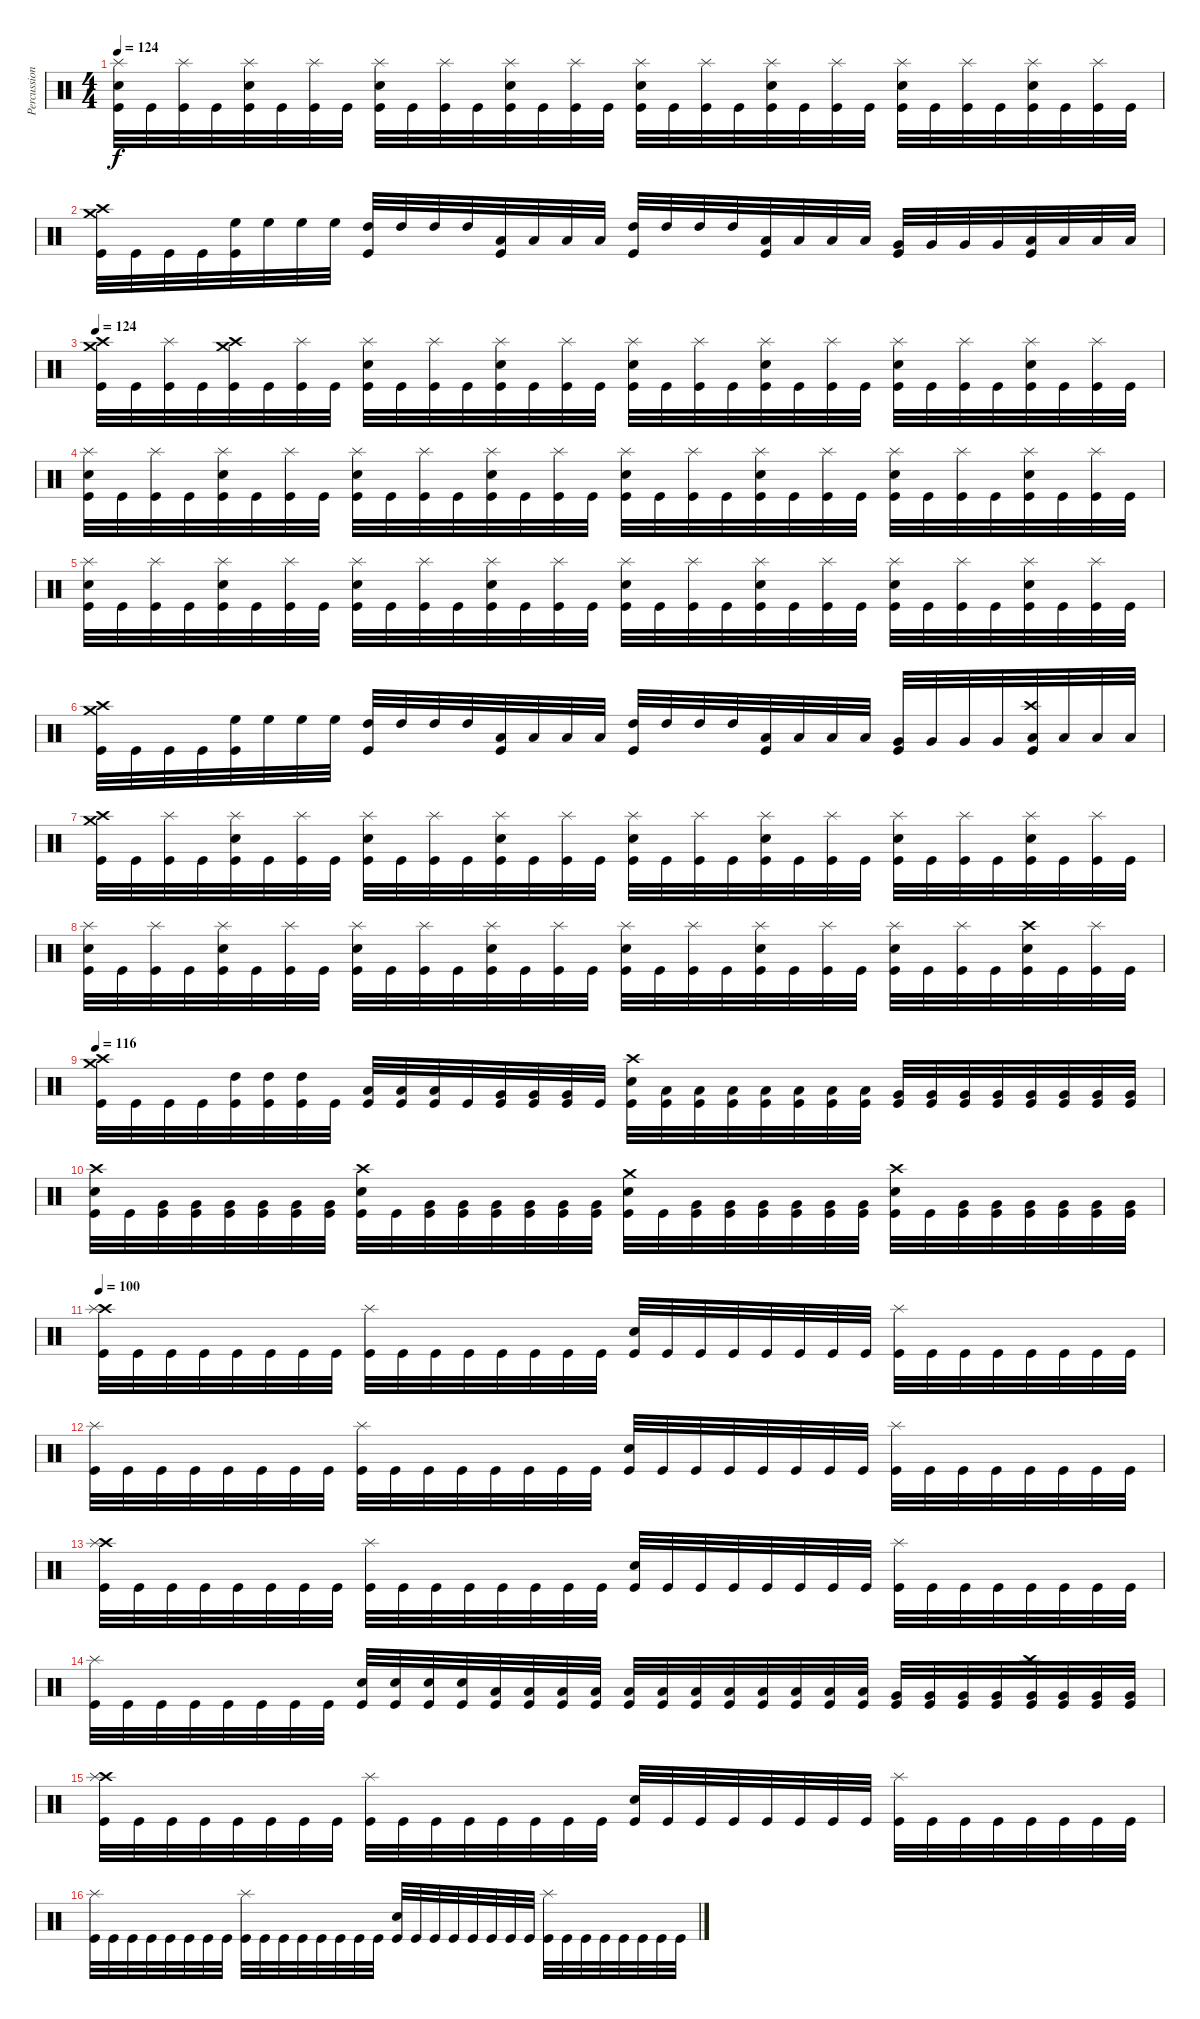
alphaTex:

\track ("Percussion" "Percussion") {instrument percussion}
\staff {score}
\articulation defaults
\ts (4 4)
\tempo 124
\clef neutral
\ks c
("Splash (hit)" "Electric Snare (hit)" "Kick (hit)").32{dy f} "Kick (hit)".32 ("Splash (hit)" "Kick (hit)").32 "Kick (hit)".32 ("Splash (hit)" "Electric Snare (hit)" "Kick (hit)").32 "Kick (hit)".32 ("Splash (hit)" "Kick (hit)").32 "Kick (hit)".32 ("Splash (hit)" "Electric Snare (hit)" "Kick (hit)").32 "Kick (hit)".32 ("Splash (hit)" "Kick (hit)").32 "Kick (hit)".32 ("Splash (hit)" "Electric Snare (hit)" "Kick (hit)").32 "Kick (hit)".32 ("Splash (hit)" "Kick (hit)").32 "Kick (hit)".32 ("Splash (hit)" "Electric Snare (hit)" "Kick (hit)").32 "Kick (hit)".32 ("Splash (hit)" "Kick (hit)").32 "Kick (hit)".32 ("Splash (hit)" "Electric Snare (hit)" "Kick (hit)").32 "Kick (hit)".32 ("Splash (hit)" "Kick (hit)").32 "Kick (hit)".32 ("Splash (hit)" "Electric Snare (hit)" "Kick (hit)").32 "Kick (hit)".32 ("Splash (hit)" "Kick (hit)").32 "Kick (hit)".32 ("Splash (hit)" "Electric Snare (hit)" "Kick (hit)").32 "Kick (hit)".32 ("Splash (hit)" "Kick (hit)").32 "Kick (hit)".32 |
("Crash medium (hit)" "Crash high (hit)" "Kick (hit)").32 "Kick (hit)".32 "Kick (hit)".32 "Kick (hit)".32 ("High Floor Tom (hit)" "Kick (hit)").32 "High Floor Tom (hit)".32 "High Floor Tom (hit)".32 "High Floor Tom (hit)".32 ("High Tom (hit)" "Kick (hit)").32 "High Tom (hit)".32 "High Tom (hit)".32 "High Tom (hit)".32 ("Low Tom (hit)" "Kick (hit)").32 "Low Tom (hit)".32 "Low Tom (hit)".32 "Low Tom (hit)".32 ("High Tom (hit)" "Kick (hit)").32 "High Tom (hit)".32 "High Tom (hit)".32 "High Tom (hit)".32 ("Low Tom (hit)" "Kick (hit)").32 "Low Tom (hit)".32 "Low Tom (hit)".32 "Low Tom (hit)".32 ("Very Low Tom (hit)" "Kick (hit)").32 "Very Low Tom (hit)".32 "Very Low Tom (hit)".32 "Very Low Tom (hit)".32 ("Low Floor Tom (hit)" "Kick (hit)").32 "Low Floor Tom (hit)".32 "Low Floor Tom (hit)".32 "Low Floor Tom (hit)".32 |
\tempo 124
("Crash high (hit)" "Crash medium (hit)" "Kick (hit)").32 "Kick (hit)".32 ("Splash (hit)" "Kick (hit)").32 "Kick (hit)".32 ("Crash high (hit)" "Crash medium (hit)" "Kick (hit)").32 "Kick (hit)".32 ("Splash (hit)" "Kick (hit)").32 "Kick (hit)".32 ("Splash (hit)" "Electric Snare (hit)" "Kick (hit)").32 "Kick (hit)".32 ("Splash (hit)" "Kick (hit)").32 "Kick (hit)".32 ("Splash (hit)" "Electric Snare (hit)" "Kick (hit)").32 "Kick (hit)".32 ("Splash (hit)" "Kick (hit)").32 "Kick (hit)".32 ("Splash (hit)" "Electric Snare (hit)" "Kick (hit)").32 "Kick (hit)".32 ("Splash (hit)" "Kick (hit)").32 "Kick (hit)".32 ("Splash (hit)" "Electric Snare (hit)" "Kick (hit)").32 "Kick (hit)".32 ("Splash (hit)" "Kick (hit)").32 "Kick (hit)".32 ("Splash (hit)" "Electric Snare (hit)" "Kick (hit)").32 "Kick (hit)".32 ("Splash (hit)" "Kick (hit)").32 "Kick (hit)".32 ("Splash (hit)" "Electric Snare (hit)" "Kick (hit)").32 "Kick (hit)".32 ("Splash (hit)" "Kick (hit)").32 "Kick (hit)".32 |
("Splash (hit)" "Electric Snare (hit)" "Kick (hit)").32 "Kick (hit)".32 ("Splash (hit)" "Kick (hit)").32 "Kick (hit)".32 ("Splash (hit)" "Electric Snare (hit)" "Kick (hit)").32 "Kick (hit)".32 ("Splash (hit)" "Kick (hit)").32 "Kick (hit)".32 ("Splash (hit)" "Electric Snare (hit)" "Kick (hit)").32 "Kick (hit)".32 ("Splash (hit)" "Kick (hit)").32 "Kick (hit)".32 ("Splash (hit)" "Electric Snare (hit)" "Kick (hit)").32 "Kick (hit)".32 ("Splash (hit)" "Kick (hit)").32 "Kick (hit)".32 ("Splash (hit)" "Electric Snare (hit)" "Kick (hit)").32 "Kick (hit)".32 ("Splash (hit)" "Kick (hit)").32 "Kick (hit)".32 ("Splash (hit)" "Electric Snare (hit)" "Kick (hit)").32 "Kick (hit)".32 ("Splash (hit)" "Kick (hit)").32 "Kick (hit)".32 ("Splash (hit)" "Electric Snare (hit)" "Kick (hit)").32 "Kick (hit)".32 ("Splash (hit)" "Kick (hit)").32 "Kick (hit)".32 ("Splash (hit)" "Electric Snare (hit)" "Kick (hit)").32 "Kick (hit)".32 ("Splash (hit)" "Kick (hit)").32 "Kick (hit)".32 |
("Splash (hit)" "Electric Snare (hit)" "Kick (hit)").32 "Kick (hit)".32 ("Splash (hit)" "Kick (hit)").32 "Kick (hit)".32 ("Splash (hit)" "Electric Snare (hit)" "Kick (hit)").32 "Kick (hit)".32 ("Splash (hit)" "Kick (hit)").32 "Kick (hit)".32 ("Splash (hit)" "Electric Snare (hit)" "Kick (hit)").32 "Kick (hit)".32 ("Splash (hit)" "Kick (hit)").32 "Kick (hit)".32 ("Splash (hit)" "Electric Snare (hit)" "Kick (hit)").32 "Kick (hit)".32 ("Splash (hit)" "Kick (hit)").32 "Kick (hit)".32 ("Splash (hit)" "Electric Snare (hit)" "Kick (hit)").32 "Kick (hit)".32 ("Splash (hit)" "Kick (hit)").32 "Kick (hit)".32 ("Splash (hit)" "Electric Snare (hit)" "Kick (hit)").32 "Kick (hit)".32 ("Splash (hit)" "Kick (hit)").32 "Kick (hit)".32 ("Splash (hit)" "Electric Snare (hit)" "Kick (hit)").32 "Kick (hit)".32 ("Splash (hit)" "Kick (hit)").32 "Kick (hit)".32 ("Splash (hit)" "Electric Snare (hit)" "Kick (hit)").32 "Kick (hit)".32 ("Splash (hit)" "Kick (hit)").32 "Kick (hit)".32 |
("Crash medium (hit)" "Crash high (hit)" "Kick (hit)").32 "Kick (hit)".32 "Kick (hit)".32 "Kick (hit)".32 ("High Floor Tom (hit)" "Kick (hit)").32 "High Floor Tom (hit)".32 "High Floor Tom (hit)".32 "High Floor Tom (hit)".32 ("High Tom (hit)" "Kick (hit)").32 "High Tom (hit)".32 "High Tom (hit)".32 "High Tom (hit)".32 ("Low Tom (hit)" "Kick (hit)").32 "Low Tom (hit)".32 "Low Tom (hit)".32 "Low Tom (hit)".32 ("High Tom (hit)" "Kick (hit)").32 "High Tom (hit)".32 "High Tom (hit)".32 "High Tom (hit)".32 ("Low Tom (hit)" "Kick (hit)").32 "Low Tom (hit)".32 "Low Tom (hit)".32 "Low Tom (hit)".32 ("Very Low Tom (hit)" "Kick (hit)").32 "Very Low Tom (hit)".32 "Very Low Tom (hit)".32 "Very Low Tom (hit)".32 ("Crash high (hit)" "Low Floor Tom (hit)" "Kick (hit)").32 "Low Floor Tom (hit)".32 "Low Floor Tom (hit)".32 "Low Floor Tom (hit)".32 |
("Crash high (hit)" "Crash medium (hit)" "Kick (hit)").32 "Kick (hit)".32 ("Splash (hit)" "Kick (hit)").32 "Kick (hit)".32 ("Splash (hit)" "Electric Snare (hit)" "Kick (hit)").32 "Kick (hit)".32 ("Splash (hit)" "Kick (hit)").32 "Kick (hit)".32 ("Splash (hit)" "Electric Snare (hit)" "Kick (hit)").32 "Kick (hit)".32 ("Splash (hit)" "Kick (hit)").32 "Kick (hit)".32 ("Splash (hit)" "Electric Snare (hit)" "Kick (hit)").32 "Kick (hit)".32 ("Splash (hit)" "Kick (hit)").32 "Kick (hit)".32 ("Splash (hit)" "Electric Snare (hit)" "Kick (hit)").32 "Kick (hit)".32 ("Splash (hit)" "Kick (hit)").32 "Kick (hit)".32 ("Splash (hit)" "Electric Snare (hit)" "Kick (hit)").32 "Kick (hit)".32 ("Splash (hit)" "Kick (hit)").32 "Kick (hit)".32 ("Splash (hit)" "Electric Snare (hit)" "Kick (hit)").32 "Kick (hit)".32 ("Splash (hit)" "Kick (hit)").32 "Kick (hit)".32 ("Splash (hit)" "Electric Snare (hit)" "Kick (hit)").32 "Kick (hit)".32 ("Splash (hit)" "Kick (hit)").32 "Kick (hit)".32 |
("Splash (hit)" "Electric Snare (hit)" "Kick (hit)").32 "Kick (hit)".32 ("Splash (hit)" "Kick (hit)").32 "Kick (hit)".32 ("Splash (hit)" "Electric Snare (hit)" "Kick (hit)").32 "Kick (hit)".32 ("Splash (hit)" "Kick (hit)").32 "Kick (hit)".32 ("Splash (hit)" "Electric Snare (hit)" "Kick (hit)").32 "Kick (hit)".32 ("Splash (hit)" "Kick (hit)").32 "Kick (hit)".32 ("Splash (hit)" "Electric Snare (hit)" "Kick (hit)").32 "Kick (hit)".32 ("Splash (hit)" "Kick (hit)").32 "Kick (hit)".32 ("Splash (hit)" "Electric Snare (hit)" "Kick (hit)").32 "Kick (hit)".32 ("Splash (hit)" "Kick (hit)").32 "Kick (hit)".32 ("Splash (hit)" "Electric Snare (hit)" "Kick (hit)").32 "Kick (hit)".32 ("Splash (hit)" "Kick (hit)").32 "Kick (hit)".32 ("Splash (hit)" "Electric Snare (hit)" "Kick (hit)").32 "Kick (hit)".32 ("Splash (hit)" "Kick (hit)").32 "Kick (hit)".32 ("Crash high (hit)" "Electric Snare (hit)" "Kick (hit)").32 "Kick (hit)".32 ("Splash (hit)" "Kick (hit)").32 "Kick (hit)".32 |
\tempo 116
("Crash high (hit)" "Crash medium (hit)" "Kick (hit)").32 "Kick (hit)".32 "Kick (hit)".32 "Kick (hit)".32 ("High Tom (hit)" "Kick (hit)").32 ("High Tom (hit)" "Kick (hit)").32 ("High Tom (hit)" "Kick (hit)").32 "Kick (hit)".32 ("Low Tom (hit)" "Kick (hit)").32 ("Low Tom (hit)" "Kick (hit)").32 ("Low Tom (hit)" "Kick (hit)").32 "Kick (hit)".32 ("Very Low Tom (hit)" "Kick (hit)").32 ("Very Low Tom (hit)" "Kick (hit)").32 ("Very Low Tom (hit)" "Kick (hit)").32 "Kick (hit)".32 ("Crash high (hit)" "Electric Snare (hit)" "Kick (hit)").32 ("Low Tom (hit)" "Kick (hit)").32 ("Low Tom (hit)" "Kick (hit)").32 ("Low Tom (hit)" "Kick (hit)").32 ("Low Tom (hit)" "Kick (hit)").32 ("Low Tom (hit)" "Kick (hit)").32 ("Low Tom (hit)" "Kick (hit)").32 ("Low Tom (hit)" "Kick (hit)").32 ("Very Low Tom (hit)" "Kick (hit)").32 ("Very Low Tom (hit)" "Kick (hit)").32 ("Very Low Tom (hit)" "Kick (hit)").32 ("Very Low Tom (hit)" "Kick (hit)").32 ("Very Low Tom (hit)" "Kick (hit)").32 ("Very Low Tom (hit)" "Kick (hit)").32 ("Very Low Tom (hit)" "Kick (hit)").32 ("Very Low Tom (hit)" "Kick (hit)").32 |
("Crash high (hit)" "Electric Snare (hit)" "Kick (hit)").32 "Kick (hit)".32 ("Very Low Tom (hit)" "Kick (hit)").32 ("Very Low Tom (hit)" "Kick (hit)").32 ("Very Low Tom (hit)" "Kick (hit)").32 ("Very Low Tom (hit)" "Kick (hit)").32 ("Very Low Tom (hit)" "Kick (hit)").32 ("Very Low Tom (hit)" "Kick (hit)").32 ("Crash high (hit)" "Electric Snare (hit)" "Kick (hit)").32 "Kick (hit)".32 ("Very Low Tom (hit)" "Kick (hit)").32 ("Very Low Tom (hit)" "Kick (hit)").32 ("Very Low Tom (hit)" "Kick (hit)").32 ("Very Low Tom (hit)" "Kick (hit)").32 ("Very Low Tom (hit)" "Kick (hit)").32 ("Very Low Tom (hit)" "Kick (hit)").32 ("Crash medium (hit)" "Electric Snare (hit)" "Kick (hit)").32 "Kick (hit)".32 ("Very Low Tom (hit)" "Kick (hit)").32 ("Very Low Tom (hit)" "Kick (hit)").32 ("Very Low Tom (hit)" "Kick (hit)").32 ("Very Low Tom (hit)" "Kick (hit)").32 ("Very Low Tom (hit)" "Kick (hit)").32 ("Very Low Tom (hit)" "Kick (hit)").32 ("Crash high (hit)" "Electric Snare (hit)" "Kick (hit)").32 "Kick (hit)".32 ("Very Low Tom (hit)" "Kick (hit)").32 ("Very Low Tom (hit)" "Kick (hit)").32 ("Very Low Tom (hit)" "Kick (hit)").32 ("Very Low Tom (hit)" "Kick (hit)").32 ("Very Low Tom (hit)" "Kick (hit)").32 ("Very Low Tom (hit)" "Kick (hit)").32 |
\tempo 116
\tempo 100
("Crash high (hit)" "Splash (hit)" "Kick (hit)").32 "Kick (hit)".32 "Kick (hit)".32 "Kick (hit)".32 "Kick (hit)".32 "Kick (hit)".32 "Kick (hit)".32 "Kick (hit)".32 ("Splash (hit)" "Kick (hit)").32 "Kick (hit)".32 "Kick (hit)".32 "Kick (hit)".32 "Kick (hit)".32 "Kick (hit)".32 "Kick (hit)".32 "Kick (hit)".32 ("Electric Snare (hit)" "Kick (hit)").32 "Kick (hit)".32 "Kick (hit)".32 "Kick (hit)".32 "Kick (hit)".32 "Kick (hit)".32 "Kick (hit)".32 "Kick (hit)".32 ("Splash (hit)" "Kick (hit)").32 "Kick (hit)".32 "Kick (hit)".32 "Kick (hit)".32 "Kick (hit)".32 "Kick (hit)".32 "Kick (hit)".32 "Kick (hit)".32 |
("Splash (hit)" "Kick (hit)").32 "Kick (hit)".32 "Kick (hit)".32 "Kick (hit)".32 "Kick (hit)".32 "Kick (hit)".32 "Kick (hit)".32 "Kick (hit)".32 ("Splash (hit)" "Kick (hit)").32 "Kick (hit)".32 "Kick (hit)".32 "Kick (hit)".32 "Kick (hit)".32 "Kick (hit)".32 "Kick (hit)".32 "Kick (hit)".32 ("Electric Snare (hit)" "Kick (hit)").32 "Kick (hit)".32 "Kick (hit)".32 "Kick (hit)".32 "Kick (hit)".32 "Kick (hit)".32 "Kick (hit)".32 "Kick (hit)".32 ("Splash (hit)" "Kick (hit)").32 "Kick (hit)".32 "Kick (hit)".32 "Kick (hit)".32 "Kick (hit)".32 "Kick (hit)".32 "Kick (hit)".32 "Kick (hit)".32 |
("Crash high (hit)" "Splash (hit)" "Kick (hit)").32 "Kick (hit)".32 "Kick (hit)".32 "Kick (hit)".32 "Kick (hit)".32 "Kick (hit)".32 "Kick (hit)".32 "Kick (hit)".32 ("Splash (hit)" "Kick (hit)").32 "Kick (hit)".32 "Kick (hit)".32 "Kick (hit)".32 "Kick (hit)".32 "Kick (hit)".32 "Kick (hit)".32 "Kick (hit)".32 ("Electric Snare (hit)" "Kick (hit)").32 "Kick (hit)".32 "Kick (hit)".32 "Kick (hit)".32 "Kick (hit)".32 "Kick (hit)".32 "Kick (hit)".32 "Kick (hit)".32 ("Splash (hit)" "Kick (hit)").32 "Kick (hit)".32 "Kick (hit)".32 "Kick (hit)".32 "Kick (hit)".32 "Kick (hit)".32 "Kick (hit)".32 "Kick (hit)".32 |
("Splash (hit)" "Kick (hit)").32 "Kick (hit)".32 "Kick (hit)".32 "Kick (hit)".32 "Kick (hit)".32 "Kick (hit)".32 "Kick (hit)".32 "Kick (hit)".32 ("Electric Snare (hit)" "Kick (hit)").32 ("Electric Snare (hit)" "Kick (hit)").32 ("Electric Snare (hit)" "Kick (hit)").32 ("Electric Snare (hit)" "Kick (hit)").32 ("Low Tom (hit)" "Kick (hit)").32 ("Low Tom (hit)" "Kick (hit)").32 ("Low Tom (hit)" "Kick (hit)").32 ("Low Tom (hit)" "Kick (hit)").32 ("Low Tom (hit)" "Kick (hit)").32 ("Low Tom (hit)" "Kick (hit)").32 ("Low Tom (hit)" "Kick (hit)").32 ("Low Tom (hit)" "Kick (hit)").32 ("Low Tom (hit)" "Kick (hit)").32 ("Low Tom (hit)" "Kick (hit)").32 ("Low Tom (hit)" "Kick (hit)").32 ("Low Tom (hit)" "Kick (hit)").32 ("Very Low Tom (hit)" "Kick (hit)").32 ("Very Low Tom (hit)" "Kick (hit)").32 ("Very Low Tom (hit)" "Kick (hit)").32 ("Very Low Tom (hit)" "Kick (hit)").32 ("Crash high (hit)" "Very Low Tom (hit)" "Kick (hit)").32 ("Very Low Tom (hit)" "Kick (hit)").32 ("Very Low Tom (hit)" "Kick (hit)").32 ("Very Low Tom (hit)" "Kick (hit)").32 |
("Crash high (hit)" "Splash (hit)" "Kick (hit)").32 "Kick (hit)".32 "Kick (hit)".32 "Kick (hit)".32 "Kick (hit)".32 "Kick (hit)".32 "Kick (hit)".32 "Kick (hit)".32 ("Splash (hit)" "Kick (hit)").32 "Kick (hit)".32 "Kick (hit)".32 "Kick (hit)".32 "Kick (hit)".32 "Kick (hit)".32 "Kick (hit)".32 "Kick (hit)".32 ("Electric Snare (hit)" "Kick (hit)").32 "Kick (hit)".32 "Kick (hit)".32 "Kick (hit)".32 "Kick (hit)".32 "Kick (hit)".32 "Kick (hit)".32 "Kick (hit)".32 ("Splash (hit)" "Kick (hit)").32 "Kick (hit)".32 "Kick (hit)".32 "Kick (hit)".32 "Kick (hit)".32 "Kick (hit)".32 "Kick (hit)".32 "Kick (hit)".32 |
("Splash (hit)" "Kick (hit)").32 "Kick (hit)".32 "Kick (hit)".32 "Kick (hit)".32 "Kick (hit)".32 "Kick (hit)".32 "Kick (hit)".32 "Kick (hit)".32 ("Splash (hit)" "Kick (hit)").32 "Kick (hit)".32 "Kick (hit)".32 "Kick (hit)".32 "Kick (hit)".32 "Kick (hit)".32 "Kick (hit)".32 "Kick (hit)".32 ("Electric Snare (hit)" "Kick (hit)").32 "Kick (hit)".32 "Kick (hit)".32 "Kick (hit)".32 "Kick (hit)".32 "Kick (hit)".32 "Kick (hit)".32 "Kick (hit)".32 ("Splash (hit)" "Kick (hit)").32 "Kick (hit)".32 "Kick (hit)".32 "Kick (hit)".32 "Kick (hit)".32 "Kick (hit)".32 "Kick (hit)".32 "Kick (hit)".32
